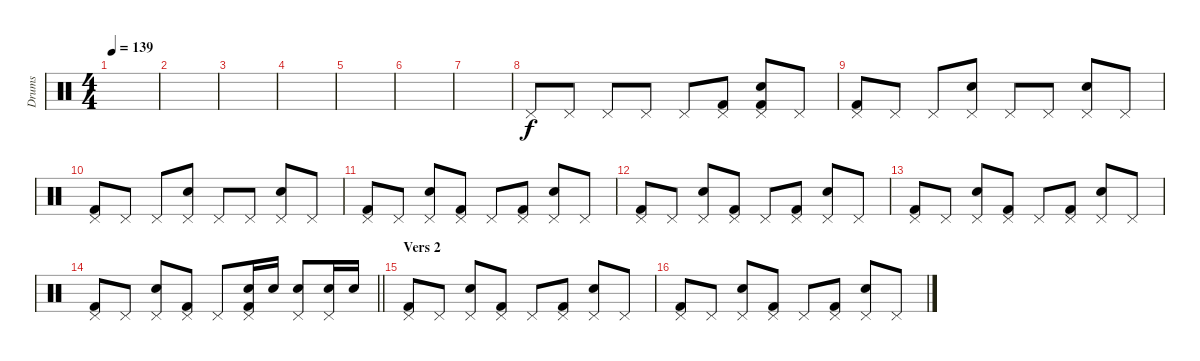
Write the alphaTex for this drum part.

\track ("Drums" "Drums") {instrument percussion}
\staff {score}
\articulation defaults
\ts (4 4)
\tempo 139
\clef neutral
\ks c
|
|
|
|
|
|
|
"Pedal Hi-Hat (hit)".8 "Pedal Hi-Hat (hit)".8 "Pedal Hi-Hat (hit)".8 "Pedal Hi-Hat (hit)".8 "Pedal Hi-Hat (hit)".8 ("Pedal Hi-Hat (hit)" "Kick (hit) 2").8 ("Pedal Hi-Hat (hit)" "Snare (hit) 2" "Kick (hit) 2").8 "Pedal Hi-Hat (hit)".8 |
("Pedal Hi-Hat (hit)" "Kick (hit) 2").8 "Pedal Hi-Hat (hit)".8 "Pedal Hi-Hat (hit)".8 ("Pedal Hi-Hat (hit)" "Snare (hit) 2").8 "Pedal Hi-Hat (hit)".8 "Pedal Hi-Hat (hit)".8 ("Pedal Hi-Hat (hit)" "Snare (hit) 2").8 "Pedal Hi-Hat (hit)".8 |
("Pedal Hi-Hat (hit)" "Kick (hit) 2").8 "Pedal Hi-Hat (hit)".8 "Pedal Hi-Hat (hit)".8 ("Pedal Hi-Hat (hit)" "Snare (hit) 2").8 "Pedal Hi-Hat (hit)".8 "Pedal Hi-Hat (hit)".8 ("Pedal Hi-Hat (hit)" "Snare (hit) 2").8 "Pedal Hi-Hat (hit)".8 |
("Pedal Hi-Hat (hit)" "Kick (hit) 2").8 "Pedal Hi-Hat (hit)".8 ("Pedal Hi-Hat (hit)" "Snare (hit) 2").8 ("Pedal Hi-Hat (hit)" "Kick (hit) 2").8 "Pedal Hi-Hat (hit)".8 ("Pedal Hi-Hat (hit)" "Kick (hit) 2").8 ("Pedal Hi-Hat (hit)" "Snare (hit) 2").8 "Pedal Hi-Hat (hit)".8 |
("Pedal Hi-Hat (hit)" "Kick (hit) 2").8 "Pedal Hi-Hat (hit)".8 ("Pedal Hi-Hat (hit)" "Snare (hit) 2").8 ("Pedal Hi-Hat (hit)" "Kick (hit) 2").8 "Pedal Hi-Hat (hit)".8 ("Pedal Hi-Hat (hit)" "Kick (hit) 2").8 ("Pedal Hi-Hat (hit)" "Snare (hit) 2").8 "Pedal Hi-Hat (hit)".8 |
("Pedal Hi-Hat (hit)" "Kick (hit) 2").8 "Pedal Hi-Hat (hit)".8 ("Pedal Hi-Hat (hit)" "Snare (hit) 2").8 ("Pedal Hi-Hat (hit)" "Kick (hit) 2").8 "Pedal Hi-Hat (hit)".8 ("Pedal Hi-Hat (hit)" "Kick (hit) 2").8 ("Pedal Hi-Hat (hit)" "Snare (hit) 2").8 "Pedal Hi-Hat (hit)".8 |
\barLineRight lightlight
("Pedal Hi-Hat (hit)" "Kick (hit) 2").8 "Pedal Hi-Hat (hit)".8 ("Pedal Hi-Hat (hit)" "Snare (hit) 2").8 ("Pedal Hi-Hat (hit)" "Kick (hit) 2").8 "Pedal Hi-Hat (hit)".8 ("Pedal Hi-Hat (hit)" "Snare (hit) 2" "Kick (hit) 2").16 "Snare (hit) 2".16 ("Pedal Hi-Hat (hit)" "Snare (hit) 2").8 ("Pedal Hi-Hat (hit)" "Snare (hit) 2").16 "Snare (hit) 2".16 |
\section ("" "Vers 2")
("Pedal Hi-Hat (hit)" "Kick (hit) 2").8 "Pedal Hi-Hat (hit)".8 ("Pedal Hi-Hat (hit)" "Snare (hit) 2").8 ("Pedal Hi-Hat (hit)" "Kick (hit) 2").8 "Pedal Hi-Hat (hit)".8 ("Pedal Hi-Hat (hit)" "Kick (hit) 2").8 ("Pedal Hi-Hat (hit)" "Snare (hit) 2").8 "Pedal Hi-Hat (hit)".8 |
("Pedal Hi-Hat (hit)" "Kick (hit) 2").8 "Pedal Hi-Hat (hit)".8 ("Pedal Hi-Hat (hit)" "Snare (hit) 2").8 ("Pedal Hi-Hat (hit)" "Kick (hit) 2").8 "Pedal Hi-Hat (hit)".8 ("Pedal Hi-Hat (hit)" "Kick (hit) 2").8 ("Pedal Hi-Hat (hit)" "Snare (hit) 2").8 "Pedal Hi-Hat (hit)".8
